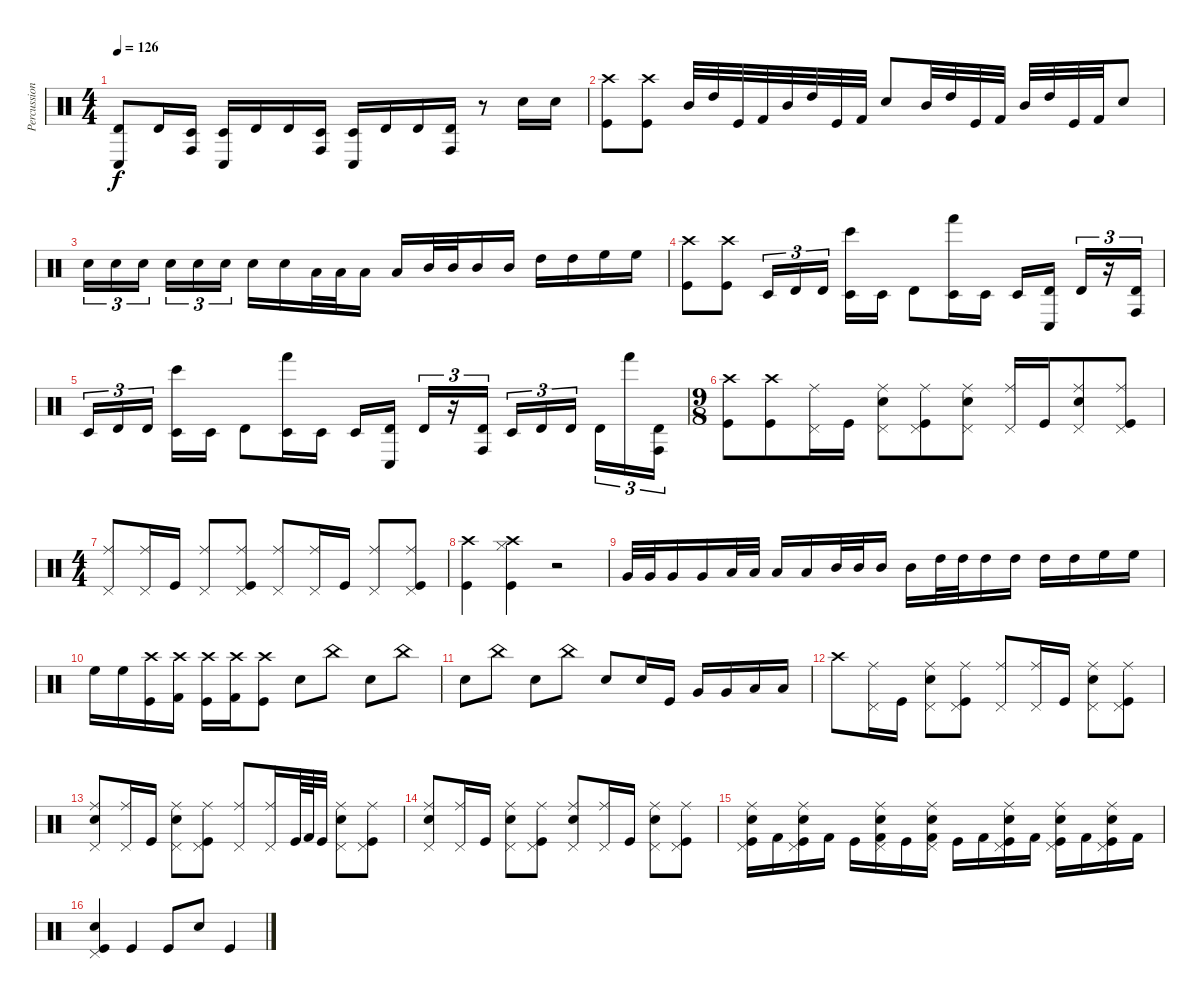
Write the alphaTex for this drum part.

\track ("Percussion" "Percussion") {instrument percussion}
\staff {score}
\articulation defaults
\ts (4 4)
\tempo 126
\clef neutral
\ks c
("Conga low (hit)" "Timbale high (hit)").8{dy f} "Timbale high (hit)".16 ("Conga high (hit)" "Timbale low (hit)").16 ("Conga low (hit)" "Timbale low (hit)").16 "Timbale high (hit)".16 "Timbale high (hit)".16 ("Conga high (hit)" "Timbale low (hit)").16 ("Conga low (hit)" "Timbale low (hit)").16 "Timbale high (hit)".16 "Timbale high (hit)".16 ("Conga high (hit)" "Timbale high (hit)").16 r.8 "Snare (hit) 2".16 "Snare (hit) 2".16 |
("Crash high (hit)" "Kick (hit)").8 ("Crash high (hit)" "Kick (hit)").8 "Mid Tom (hit)".32 "High Tom (hit)".32 "Kick (hit)".32 "Kick (hit) 2".32 "Mid Tom (hit)".32 "High Tom (hit)".32 "Kick (hit)".32 "Kick (hit) 2".32 "Hand Clap (hit)".8 "Mid Tom (hit)".32 "High Tom (hit)".32 "Kick (hit)".32 "Kick (hit) 2".32 "Mid Tom (hit)".32 "High Tom (hit)".32 "Kick (hit)".32 "Kick (hit) 2".32 "Snare (hit) 2".8 |
"Snare (hit) 2".16{tu (3 2)} "Snare (hit) 2".16{tu (3 2)} "Snare (hit) 2".16{tu (3 2)} "Snare (hit) 2".16{tu (3 2)} "Snare (hit) 2".16{tu (3 2)} "Snare (hit) 2".16{tu (3 2)} "Snare (hit) 2".16 "Snare (hit) 2".16 "Low Tom (hit)".32 "Low Tom (hit)".32 "Low Tom (hit)".16 "Low Tom (hit)".16 "Mid Tom (hit)".32 "Mid Tom (hit)".32 "Mid Tom (hit)".16 "Mid Tom (hit)".16 "High Tom (hit)".16 "High Tom (hit)".16 "High Floor Tom (hit)".16 "High Floor Tom (hit)".16 |
("Crash high (hit)" "Kick (hit)").8 ("Crash high (hit)" "Kick (hit)").8 "Timbale low (hit)".16{tu (3 2)} "Timbale high (hit)".16{tu (3 2)} "Timbale high (hit)".16{tu (3 2)} ("Bongo High (hit)" "Timbale low (hit)").16 "Timbale low (hit)".16 "Timbale high (hit)".8 ("Hand (hit)" "Timbale low (hit)").16 "Timbale low (hit)".16 "Timbale low (hit)".16 ("Conga low (hit)" "Timbale high (hit)").16 "Timbale high (hit)".16{tu (3 2)} r.16{tu (3 2)} ("Conga high (hit)" "Timbale high (hit)").16{tu (3 2)} |
"Timbale low (hit)".16{tu (3 2)} "Timbale high (hit)".16{tu (3 2)} "Timbale high (hit)".16{tu (3 2)} ("Bongo High (hit)" "Timbale low (hit)").16 "Timbale low (hit)".16 "Timbale high (hit)".8 ("Hand (hit)" "Timbale low (hit)").16 "Timbale low (hit)".16 "Timbale low (hit)".16 ("Conga low (hit)" "Timbale high (hit)").16 "Timbale high (hit)".16{tu (3 2)} r.16{tu (3 2)} ("Conga high (hit)" "Timbale high (hit)").16{tu (3 2)} "Timbale low (hit)".16{tu (3 2)} "Timbale high (hit)".16{tu (3 2)} "Timbale high (hit)".16{tu (3 2)} "Timbale high (hit)".16{tu (3 2)} "Hand (hit)".16{tu (3 2)} ("Conga high (hit)" "Timbale high (hit)").16{tu (3 2)} |
\ts (9 8)
("Crash high (hit)" "Kick (hit)").8 ("Crash high (hit)" "Kick (hit)").8 ("Pedal Hi-Hat (hit)" "Ride (middle)").16 "Kick (hit)".16 ("Pedal Hi-Hat (hit)" "Ride (middle)" "Snare (hit) 2").8 ("Pedal Hi-Hat (hit)" "Ride (middle)" "Kick (hit)").8 ("Pedal Hi-Hat (hit)" "Ride (middle)" "Snare (hit) 2").8 ("Pedal Hi-Hat (hit)" "Ride (middle)").16 "Kick (hit)".16 ("Pedal Hi-Hat (hit)" "Ride (middle)" "Snare (hit) 2").8 ("Pedal Hi-Hat (hit)" "Ride (middle)" "Kick (hit)").8 |
\ts (4 4)
("Pedal Hi-Hat (hit)" "Ride (middle)").8 ("Pedal Hi-Hat (hit)" "Ride (middle)").16 "Kick (hit)".16 ("Pedal Hi-Hat (hit)" "Ride (middle)").8 ("Pedal Hi-Hat (hit)" "Ride (middle)" "Kick (hit)").8 ("Pedal Hi-Hat (hit)" "Ride (middle)").8 ("Pedal Hi-Hat (hit)" "Ride (middle)").16 "Kick (hit)".16 ("Pedal Hi-Hat (hit)" "Ride (middle)").8 ("Pedal Hi-Hat (hit)" "Ride (middle)" "Kick (hit)").8 |
("Crash high (hit)" "Kick (hit)").4 ("Crash high (hit)" "Hi-Hat (closed)" "Kick (hit)").4 r.2 |
"Very Low Tom (hit)".32 "Very Low Tom (hit)".32 "Very Low Tom (hit)".16 "Very Low Tom (hit)".16 "Low Tom (hit)".32 "Low Tom (hit)".32 "Low Tom (hit)".16 "Low Tom (hit)".16 "Mid Tom (hit)".32 "Mid Tom (hit)".32 "Mid Tom (hit)".16 "Mid Tom (hit)".16 "High Tom (hit)".32 "High Tom (hit)".32 "High Tom (hit)".16 "High Tom (hit)".16 "High Tom (hit)".16 "High Tom (hit)".16 "High Floor Tom (hit)".16 "High Floor Tom (hit)".16 |
"High Floor Tom (hit)".16 "High Floor Tom (hit)".16 ("Kick (hit)" "Crash high (hit)").16 ("Kick (hit) 2" "Crash high (hit)").16 ("Kick (hit)" "Crash high (hit)").16 ("Kick (hit) 2" "Crash high (hit)").16 ("Kick (hit)" "Crash high (hit)").8 "Snare (hit) 2".8 "China (hit)".8 "Snare (hit) 2".8 "China (hit)".8 |
"Snare (hit) 2".8 "China (hit)".8 "Snare (hit) 2".8 "China (hit)".8 "Snare (hit) 2".8 "Snare (hit) 2".16 "Kick (hit)".16 "Very Low Tom (hit)".16 "Very Low Tom (hit)".16 "Low Tom (hit)".16 "Low Tom (hit)".16 |
"Crash high (hit)".8 ("Pedal Hi-Hat (hit)" "Ride (middle)").16 "Kick (hit)".16 ("Pedal Hi-Hat (hit)" "Ride (middle)" "Snare (hit) 2").8 ("Pedal Hi-Hat (hit)" "Ride (middle)" "Kick (hit)").8 ("Pedal Hi-Hat (hit)" "Ride (middle)").8 ("Pedal Hi-Hat (hit)" "Ride (middle)").16 "Kick (hit)".16 ("Pedal Hi-Hat (hit)" "Ride (middle)" "Snare (hit) 2").8 ("Pedal Hi-Hat (hit)" "Ride (middle)" "Kick (hit)").8 |
("Pedal Hi-Hat (hit)" "Ride (middle)" "Snare (hit) 2").8 ("Pedal Hi-Hat (hit)" "Ride (middle)").16 "Kick (hit)".16 ("Pedal Hi-Hat (hit)" "Ride (middle)" "Snare (hit) 2").8 ("Pedal Hi-Hat (hit)" "Ride (middle)" "Kick (hit)").8 ("Pedal Hi-Hat (hit)" "Ride (middle)").8 ("Pedal Hi-Hat (hit)" "Ride (middle)").16 "Kick (hit)".64 "Kick (hit) 2".64 "Kick (hit)".32 ("Pedal Hi-Hat (hit)" "Ride (middle)" "Snare (hit) 2").8 ("Pedal Hi-Hat (hit)" "Ride (middle)" "Kick (hit)").8 |
("Pedal Hi-Hat (hit)" "Ride (middle)" "Snare (hit) 2").8 ("Pedal Hi-Hat (hit)" "Ride (middle)").16 "Kick (hit)".16 ("Pedal Hi-Hat (hit)" "Ride (middle)" "Snare (hit) 2").8 ("Pedal Hi-Hat (hit)" "Ride (middle)" "Kick (hit)").8 ("Pedal Hi-Hat (hit)" "Ride (middle)" "Snare (hit) 2").8 ("Pedal Hi-Hat (hit)" "Ride (middle)").16 "Kick (hit)".16 ("Pedal Hi-Hat (hit)" "Ride (middle)" "Snare (hit) 2").8 ("Pedal Hi-Hat (hit)" "Ride (middle)" "Kick (hit)").8 |
("Snare (hit) 2" "Pedal Hi-Hat (hit)" "Ride (middle)" "Kick (hit)").16 "Kick (hit) 2".16 ("Snare (hit) 2" "Pedal Hi-Hat (hit)" "Ride (middle)" "Kick (hit)").16 "Kick (hit) 2".16 "Kick (hit)".16 ("Snare (hit) 2" "Pedal Hi-Hat (hit)" "Ride (middle)" "Kick (hit) 2").16 "Kick (hit)".16 ("Snare (hit) 2" "Pedal Hi-Hat (hit)" "Ride (middle)" "Kick (hit) 2").16 "Kick (hit)".16 "Kick (hit) 2".16 ("Snare (hit) 2" "Pedal Hi-Hat (hit)" "Ride (middle)" "Kick (hit)").16 "Kick (hit) 2".16 ("Snare (hit) 2" "Pedal Hi-Hat (hit)" "Ride (middle)" "Kick (hit)").16 "Kick (hit) 2".16 ("Snare (hit) 2" "Pedal Hi-Hat (hit)" "Ride (middle)" "Kick (hit)").16 "Kick (hit) 2".16 |
("Snare (hit) 2" "Kick (hit)" "Pedal Hi-Hat (hit)").4 "Kick (hit)".4 "Kick (hit)".8 "Snare (hit) 2".8 "Kick (hit)".4
